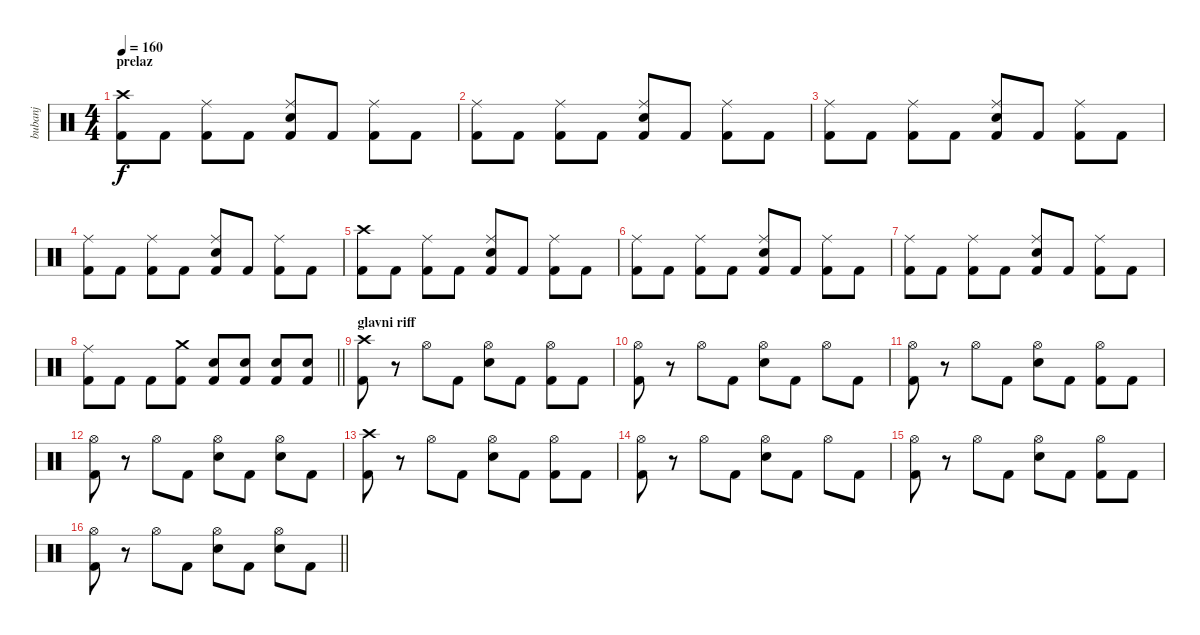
\track ("bubanj" "bubanj") {instrument percussion}
\staff {score}
\articulation defaults
\ts (4 4)
\section ("" "prelaz")
\tempo 160
\clef neutral
\ks c
("Crash high (hit)" "Kick (hit) 2").8{dy f} "Kick (hit) 2".8 ("Ride (middle)" "Kick (hit) 2").8 "Kick (hit) 2".8 ("Ride (middle)" "Electric Snare (hit)" "Kick (hit) 2").8 "Kick (hit) 2".8 ("Ride (middle)" "Kick (hit) 2").8 "Kick (hit) 2".8 |
("Ride (middle)" "Kick (hit) 2").8 "Kick (hit) 2".8 ("Ride (middle)" "Kick (hit) 2").8 "Kick (hit) 2".8 ("Ride (middle)" "Electric Snare (hit)" "Kick (hit) 2").8 "Kick (hit) 2".8 ("Ride (middle)" "Kick (hit) 2").8 "Kick (hit) 2".8 |
("Ride (middle)" "Kick (hit) 2").8 "Kick (hit) 2".8 ("Ride (middle)" "Kick (hit) 2").8 "Kick (hit) 2".8 ("Ride (middle)" "Electric Snare (hit)" "Kick (hit) 2").8 "Kick (hit) 2".8 ("Ride (middle)" "Kick (hit) 2").8 "Kick (hit) 2".8 |
("Ride (middle)" "Kick (hit) 2").8 "Kick (hit) 2".8 ("Ride (middle)" "Kick (hit) 2").8 "Kick (hit) 2".8 ("Ride (middle)" "Electric Snare (hit)" "Kick (hit) 2").8 "Kick (hit) 2".8 ("Ride (middle)" "Kick (hit) 2").8 "Kick (hit) 2".8 |
("Crash high (hit)" "Kick (hit) 2").8 "Kick (hit) 2".8 ("Ride (middle)" "Kick (hit) 2").8 "Kick (hit) 2".8 ("Ride (middle)" "Electric Snare (hit)" "Kick (hit) 2").8 "Kick (hit) 2".8 ("Ride (middle)" "Kick (hit) 2").8 "Kick (hit) 2".8 |
("Ride (middle)" "Kick (hit) 2").8 "Kick (hit) 2".8 ("Ride (middle)" "Kick (hit) 2").8 "Kick (hit) 2".8 ("Ride (middle)" "Electric Snare (hit)" "Kick (hit) 2").8 "Kick (hit) 2".8 ("Ride (middle)" "Kick (hit) 2").8 "Kick (hit) 2".8 |
("Ride (middle)" "Kick (hit) 2").8 "Kick (hit) 2".8 ("Ride (middle)" "Kick (hit) 2").8 "Kick (hit) 2".8 ("Ride (middle)" "Electric Snare (hit)" "Kick (hit) 2").8 "Kick (hit) 2".8 ("Ride (middle)" "Kick (hit) 2").8 "Kick (hit) 2".8 |
\barLineRight lightlight
("Ride (middle)" "Kick (hit) 2").8 "Kick (hit) 2".8 "Kick (hit) 2".8 ("Crash medium (hit)" "Kick (hit) 2").8 ("Electric Snare (hit)" "Kick (hit) 2").8 ("Electric Snare (hit)" "Kick (hit) 2").8 ("Electric Snare (hit)" "Kick (hit) 2").8 ("Electric Snare (hit)" "Kick (hit) 2").8 |
\section ("" "glavni riff")
("Crash high (hit)" "Kick (hit) 2").8 r.8 "Hi-Hat (open)".8 "Kick (hit) 2".8 ("Hi-Hat (open)" "Electric Snare (hit)").8 "Kick (hit) 2".8 ("Hi-Hat (open)" "Kick (hit) 2").8 "Kick (hit) 2".8 |
("Hi-Hat (open)" "Kick (hit) 2").8 r.8 "Hi-Hat (open)".8 "Kick (hit) 2".8 ("Hi-Hat (open)" "Electric Snare (hit)").8 "Kick (hit) 2".8 "Hi-Hat (open)".8 "Kick (hit) 2".8 |
("Hi-Hat (open)" "Kick (hit) 2").8 r.8 "Hi-Hat (open)".8 "Kick (hit) 2".8 ("Hi-Hat (open)" "Electric Snare (hit)").8 "Kick (hit) 2".8 ("Hi-Hat (open)" "Kick (hit) 2").8 "Kick (hit) 2".8 |
("Hi-Hat (open)" "Kick (hit) 2").8 r.8 "Hi-Hat (open)".8 "Kick (hit) 2".8 ("Hi-Hat (open)" "Electric Snare (hit)").8 "Kick (hit) 2".8 ("Hi-Hat (open)" "Electric Snare (hit)").8 "Kick (hit) 2".8 |
("Crash high (hit)" "Kick (hit) 2").8 r.8 "Hi-Hat (open)".8 "Kick (hit) 2".8 ("Hi-Hat (open)" "Electric Snare (hit)").8 "Kick (hit) 2".8 ("Hi-Hat (open)" "Kick (hit) 2").8 "Kick (hit) 2".8 |
("Hi-Hat (open)" "Kick (hit) 2").8 r.8 "Hi-Hat (open)".8 "Kick (hit) 2".8 ("Hi-Hat (open)" "Electric Snare (hit)").8 "Kick (hit) 2".8 "Hi-Hat (open)".8 "Kick (hit) 2".8 |
("Hi-Hat (open)" "Kick (hit) 2").8 r.8 "Hi-Hat (open)".8 "Kick (hit) 2".8 ("Hi-Hat (open)" "Electric Snare (hit)").8 "Kick (hit) 2".8 ("Hi-Hat (open)" "Kick (hit) 2").8 "Kick (hit) 2".8 |
\barLineRight lightlight
("Hi-Hat (open)" "Kick (hit) 2").8 r.8 "Hi-Hat (open)".8 "Kick (hit) 2".8 ("Hi-Hat (open)" "Electric Snare (hit)").8 "Kick (hit) 2".8 ("Hi-Hat (open)" "Electric Snare (hit)").8 "Kick (hit) 2".8
